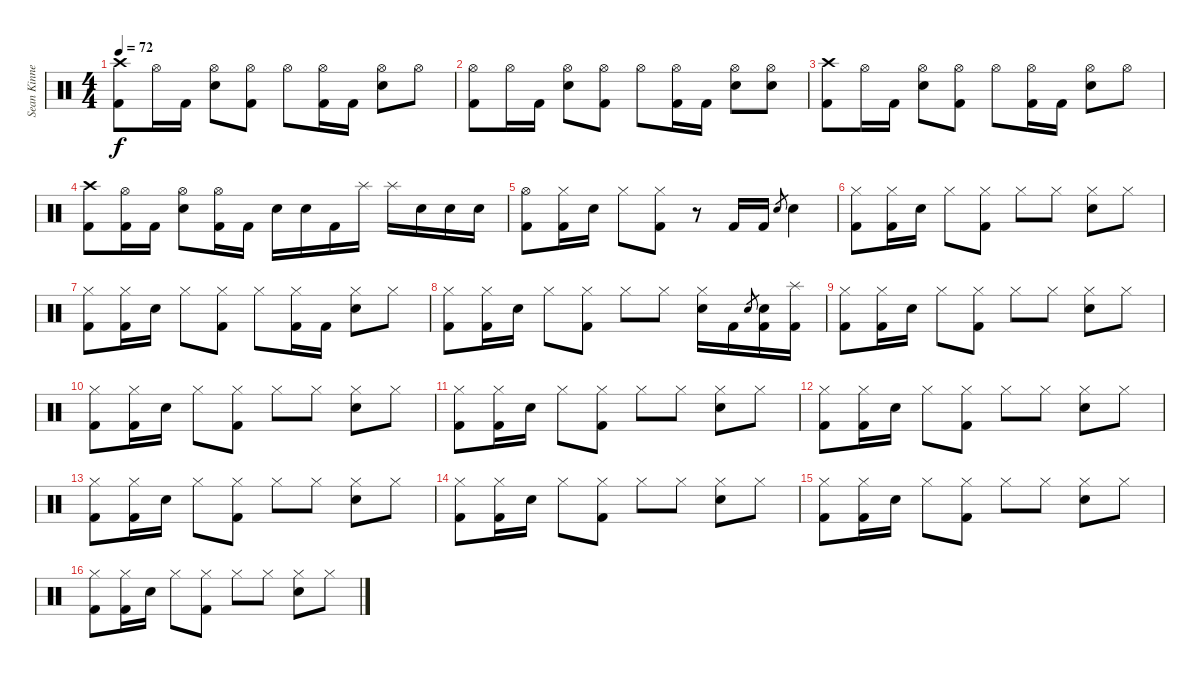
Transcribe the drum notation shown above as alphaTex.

\track ("Sean Kinney - Drums" "Sean Kinne") {instrument percussion}
\staff {score}
\articulation defaults
\ts (4 4)
\tempo 72
\clef neutral
\ks c
("Crash high (hit)" "Kick (hit) 2").8{dy f} "Hi-Hat (open)".16 "Kick (hit) 2".16 ("Hi-Hat (open)" "Electric Snare (hit)").8 ("Hi-Hat (open)" "Kick (hit) 2").8 "Hi-Hat (open)".8 ("Hi-Hat (open)" "Kick (hit) 2").16 "Kick (hit) 2".16 ("Hi-Hat (open)" "Electric Snare (hit)").8 "Hi-Hat (open)".8 |
("Hi-Hat (open)" "Kick (hit) 2").8 "Hi-Hat (open)".16 "Kick (hit) 2".16 ("Hi-Hat (open)" "Electric Snare (hit)").8 ("Hi-Hat (open)" "Kick (hit) 2").8 "Hi-Hat (open)".8 ("Hi-Hat (open)" "Kick (hit) 2").16 "Kick (hit) 2".16 ("Hi-Hat (open)" "Electric Snare (hit)").8 ("Hi-Hat (open)" "Electric Snare (hit)").8 |
("Crash high (hit)" "Kick (hit) 2").8 "Hi-Hat (open)".16 "Kick (hit) 2".16 ("Hi-Hat (open)" "Electric Snare (hit)").8 ("Hi-Hat (open)" "Kick (hit) 2").8 "Hi-Hat (open)".8 ("Hi-Hat (open)" "Kick (hit) 2").16 "Kick (hit) 2".16 ("Hi-Hat (open)" "Electric Snare (hit)").8 "Hi-Hat (open)".8 |
("Crash high (hit)" "Kick (hit) 2").8 ("Hi-Hat (open)" "Kick (hit) 2").16 "Kick (hit) 2".16 ("Hi-Hat (open)" "Electric Snare (hit)").8 ("Hi-Hat (open)" "Kick (hit) 2").16 "Kick (hit) 2".16 "Electric Snare (hit)".16 "Electric Snare (hit)".16 "Kick (hit) 2".16 "Splash (hit)".16 "Splash (hit)".16 "Electric Snare (hit)".16 "Electric Snare (hit)".16 "Electric Snare (hit)".16 |
("Hi-Hat (open)" "Kick (hit) 2").8 ("Hi-Hat (closed)" "Kick (hit) 2").16 "Electric Snare (hit)".16 "Hi-Hat (closed)".8 ("Hi-Hat (closed)" "Kick (hit) 2").8 r.8 "Kick (hit) 2".16 "Kick (hit) 2".16 "Electric Snare (hit)"{sl}.8{gr} "Electric Snare (hit)".4 |
("Hi-Hat (closed)" "Kick (hit) 2").8 ("Hi-Hat (closed)" "Kick (hit) 2").16 "Electric Snare (hit)".16 "Hi-Hat (closed)".8 ("Hi-Hat (closed)" "Kick (hit) 2").8 "Hi-Hat (closed)".8 "Hi-Hat (closed)".8 ("Hi-Hat (closed)" "Electric Snare (hit)").8 "Hi-Hat (closed)".8 |
("Hi-Hat (closed)" "Kick (hit) 2").8 ("Hi-Hat (closed)" "Kick (hit) 2").16 "Electric Snare (hit)".16 "Hi-Hat (closed)".8 ("Hi-Hat (closed)" "Kick (hit) 2").8 "Hi-Hat (closed)".8 ("Hi-Hat (closed)" "Kick (hit) 2").16 "Kick (hit) 2".16 ("Hi-Hat (closed)" "Electric Snare (hit)").8 "Hi-Hat (closed)".8 |
("Hi-Hat (closed)" "Kick (hit) 2").8 ("Hi-Hat (closed)" "Kick (hit) 2").16 "Electric Snare (hit)".16 "Hi-Hat (closed)".8 ("Hi-Hat (closed)" "Kick (hit) 2").8 "Hi-Hat (closed)".8 "Hi-Hat (closed)".8 ("Hi-Hat (closed)" "Electric Snare (hit)").16 "Kick (hit) 2".16 "Electric Snare (hit)".8{gr} ("Electric Snare (hit)" "Kick (hit) 2").16 ("Splash (hit)" "Kick (hit) 2").16 |
("Hi-Hat (closed)" "Kick (hit) 2").8 ("Hi-Hat (closed)" "Kick (hit) 2").16 "Electric Snare (hit)".16 "Hi-Hat (closed)".8 ("Hi-Hat (closed)" "Kick (hit) 2").8 "Hi-Hat (closed)".8 "Hi-Hat (closed)".8 ("Hi-Hat (closed)" "Electric Snare (hit)").8 "Hi-Hat (closed)".8 |
("Hi-Hat (closed)" "Kick (hit) 2").8 ("Hi-Hat (closed)" "Kick (hit) 2").16 "Electric Snare (hit)".16 "Hi-Hat (closed)".8 ("Hi-Hat (closed)" "Kick (hit) 2").8 "Hi-Hat (closed)".8 "Hi-Hat (closed)".8 ("Hi-Hat (closed)" "Electric Snare (hit)").8 "Hi-Hat (closed)".8 |
("Hi-Hat (closed)" "Kick (hit) 2").8 ("Hi-Hat (closed)" "Kick (hit) 2").16 "Electric Snare (hit)".16 "Hi-Hat (closed)".8 ("Hi-Hat (closed)" "Kick (hit) 2").8 "Hi-Hat (closed)".8 "Hi-Hat (closed)".8 ("Hi-Hat (closed)" "Electric Snare (hit)").8 "Hi-Hat (closed)".8 |
("Hi-Hat (closed)" "Kick (hit) 2").8 ("Hi-Hat (closed)" "Kick (hit) 2").16 "Electric Snare (hit)".16 "Hi-Hat (closed)".8 ("Hi-Hat (closed)" "Kick (hit) 2").8 "Hi-Hat (closed)".8 "Hi-Hat (closed)".8 ("Hi-Hat (closed)" "Electric Snare (hit)").8 "Hi-Hat (closed)".8 |
("Hi-Hat (closed)" "Kick (hit) 2").8 ("Hi-Hat (closed)" "Kick (hit) 2").16 "Electric Snare (hit)".16 "Hi-Hat (closed)".8 ("Hi-Hat (closed)" "Kick (hit) 2").8 "Hi-Hat (closed)".8 "Hi-Hat (closed)".8 ("Hi-Hat (closed)" "Electric Snare (hit)").8 "Hi-Hat (closed)".8 |
("Hi-Hat (closed)" "Kick (hit) 2").8 ("Hi-Hat (closed)" "Kick (hit) 2").16 "Electric Snare (hit)".16 "Hi-Hat (closed)".8 ("Hi-Hat (closed)" "Kick (hit) 2").8 "Hi-Hat (closed)".8 "Hi-Hat (closed)".8 ("Hi-Hat (closed)" "Electric Snare (hit)").8 "Hi-Hat (closed)".8 |
("Hi-Hat (closed)" "Kick (hit) 2").8 ("Hi-Hat (closed)" "Kick (hit) 2").16 "Electric Snare (hit)".16 "Hi-Hat (closed)".8 ("Hi-Hat (closed)" "Kick (hit) 2").8 "Hi-Hat (closed)".8 "Hi-Hat (closed)".8 ("Hi-Hat (closed)" "Electric Snare (hit)").8 "Hi-Hat (closed)".8 |
("Hi-Hat (closed)" "Kick (hit) 2").8 ("Hi-Hat (closed)" "Kick (hit) 2").16 "Electric Snare (hit)".16 "Hi-Hat (closed)".8 ("Hi-Hat (closed)" "Kick (hit) 2").8 "Hi-Hat (closed)".8 "Hi-Hat (closed)".8 ("Hi-Hat (closed)" "Electric Snare (hit)").8 "Hi-Hat (closed)".8
